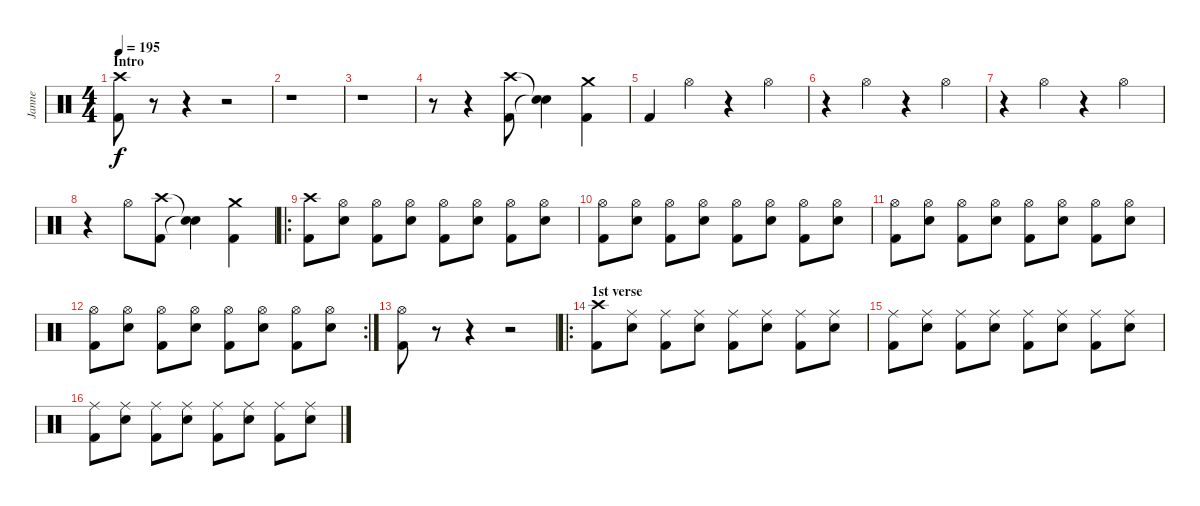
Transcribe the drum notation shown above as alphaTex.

\track ("Janne" "Janne") {instrument percussion}
\staff {score}
\articulation defaults
\ts (4 4)
\section ("" "Intro")
\tempo 195
\clef neutral
\ks c
("Crash high (hit)" "Kick (hit) 2").8{dy f} r.8 r.4 r.2 |
r.1 |
r.1 |
r.8 r.4 ("Crash high (hit)" "Kick (hit) 2").8 ("Snare (hit)"{t} "Snare (hit)"{t}).4 ("Crash medium (hit)" "Kick (hit) 2").4 |
"Kick (hit) 2".4 "Hi-Hat (open)".4 r.4 "Hi-Hat (open)".4 |
r.4 "Hi-Hat (open)".4 r.4 "Hi-Hat (open)".4 |
r.4 "Hi-Hat (open)".4 r.4 "Hi-Hat (open)".4 |
r.4 "Hi-Hat (open)".8 ("Crash high (hit)" "Kick (hit) 2").8 ("Snare (hit)"{t} "Snare (hit)"{t}).4 ("Crash medium (hit)" "Kick (hit) 2").4 |
\ro
("Crash high (hit)" "Kick (hit) 2").8 ("Hi-Hat (open)" "Electric Snare (hit)").8 ("Hi-Hat (open)" "Kick (hit) 2").8 ("Hi-Hat (open)" "Electric Snare (hit)").8 ("Hi-Hat (open)" "Kick (hit) 2").8 ("Hi-Hat (open)" "Electric Snare (hit)").8 ("Hi-Hat (open)" "Kick (hit) 2").8 ("Hi-Hat (open)" "Electric Snare (hit)").8 |
("Hi-Hat (open)" "Kick (hit) 2").8 ("Hi-Hat (open)" "Electric Snare (hit)").8 ("Hi-Hat (open)" "Kick (hit) 2").8 ("Hi-Hat (open)" "Electric Snare (hit)").8 ("Hi-Hat (open)" "Kick (hit) 2").8 ("Hi-Hat (open)" "Electric Snare (hit)").8 ("Hi-Hat (open)" "Kick (hit) 2").8 ("Hi-Hat (open)" "Electric Snare (hit)").8 |
("Hi-Hat (open)" "Kick (hit) 2").8 ("Hi-Hat (open)" "Electric Snare (hit)").8 ("Hi-Hat (open)" "Kick (hit) 2").8 ("Hi-Hat (open)" "Electric Snare (hit)").8 ("Hi-Hat (open)" "Kick (hit) 2").8 ("Hi-Hat (open)" "Electric Snare (hit)").8 ("Hi-Hat (open)" "Kick (hit) 2").8 ("Hi-Hat (open)" "Electric Snare (hit)").8 |
\rc 2
("Hi-Hat (open)" "Kick (hit) 2").8 ("Hi-Hat (open)" "Electric Snare (hit)").8 ("Hi-Hat (open)" "Kick (hit) 2").8 ("Hi-Hat (open)" "Electric Snare (hit)").8 ("Hi-Hat (open)" "Kick (hit) 2").8 ("Hi-Hat (open)" "Electric Snare (hit)").8 ("Hi-Hat (open)" "Kick (hit) 2").8 ("Hi-Hat (open)" "Electric Snare (hit)").8 |
("Hi-Hat (open)" "Kick (hit) 2").8 r.8 r.4 r.2 |
\ro
\section ("" "1st verse")
("Crash high (hit)" "Kick (hit) 2").8 ("Ride (middle)" "Electric Snare (hit)").8 ("Ride (middle)" "Kick (hit) 2").8 ("Ride (middle)" "Electric Snare (hit)").8 ("Ride (middle)" "Kick (hit) 2").8 ("Ride (middle)" "Electric Snare (hit)").8 ("Ride (middle)" "Kick (hit) 2").8 ("Ride (middle)" "Electric Snare (hit)").8 |
("Ride (middle)" "Kick (hit) 2").8 ("Ride (middle)" "Electric Snare (hit)").8 ("Ride (middle)" "Kick (hit) 2").8 ("Ride (middle)" "Electric Snare (hit)").8 ("Ride (middle)" "Kick (hit) 2").8 ("Ride (middle)" "Electric Snare (hit)").8 ("Ride (middle)" "Kick (hit) 2").8 ("Ride (middle)" "Electric Snare (hit)").8 |
("Ride (middle)" "Kick (hit) 2").8 ("Ride (middle)" "Electric Snare (hit)").8 ("Ride (middle)" "Kick (hit) 2").8 ("Ride (middle)" "Electric Snare (hit)").8 ("Ride (middle)" "Kick (hit) 2").8 ("Ride (middle)" "Electric Snare (hit)").8 ("Ride (middle)" "Kick (hit) 2").8 ("Ride (middle)" "Electric Snare (hit)").8
